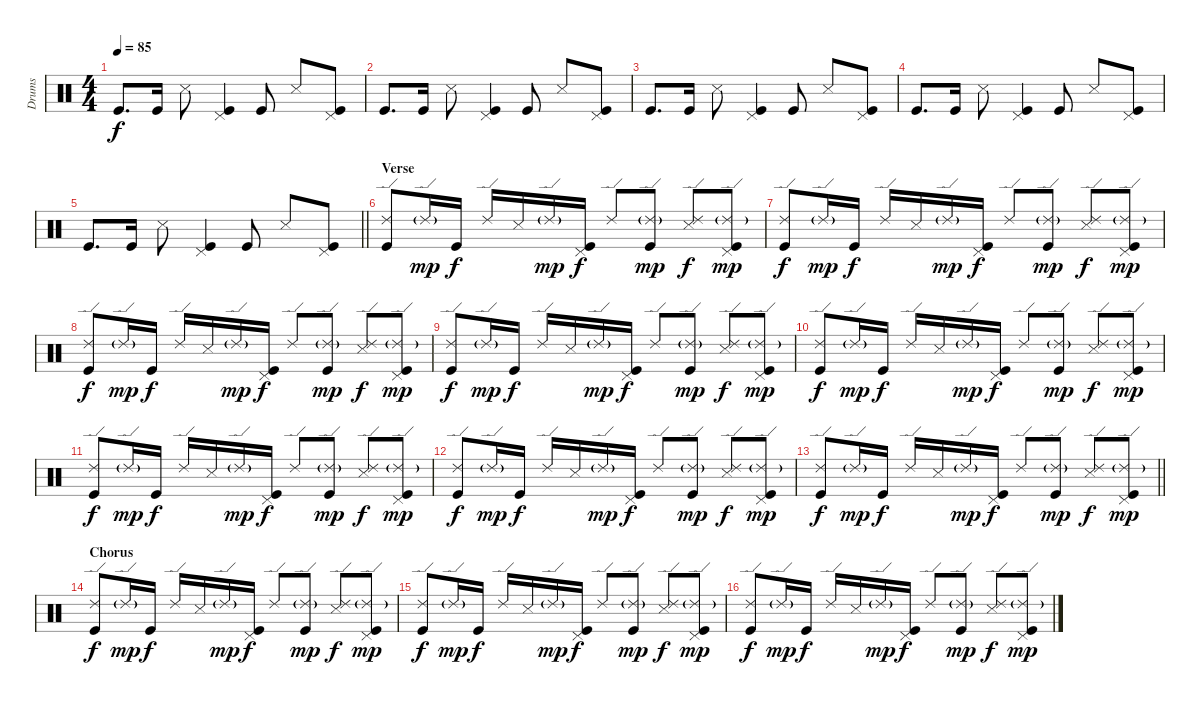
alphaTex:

\track ("Drums" "Drums") {instrument percussion}
\staff {score}
\articulation defaults
\ts (4 4)
\tempo 85
\clef neutral
\ks c "Kick (hit)".8{d dy f} "Kick (hit)".16 "Snare (side stick) 3".8
("Pedal Hi-Hat (hit)" "Kick (hit)").4 "Kick (hit)".8 "Snare (side stick) 3".8 ("Pedal Hi-Hat (hit)" "Kick (hit)").8 |
"Kick (hit)".8{d} "Kick (hit)".16 "Snare (side stick) 3".8 ("Pedal Hi-Hat (hit)" "Kick (hit)").4 "Kick (hit)".8 "Snare (side stick) 3".8 ("Pedal Hi-Hat (hit)" "Kick (hit)").8 |
"Kick (hit)".8{d} "Kick (hit)".16 "Snare (side stick) 3".8 ("Pedal Hi-Hat (hit)" "Kick (hit)").4 "Kick (hit)".8 "Snare (side stick) 3".8 ("Pedal Hi-Hat (hit)" "Kick (hit)").8 |
"Kick (hit)".8{d} "Kick (hit)".16 "Snare (side stick) 3".8 ("Pedal Hi-Hat (hit)" "Kick (hit)").4 "Kick (hit)".8 "Snare (side stick) 3".8 ("Pedal Hi-Hat (hit)" "Kick (hit)").8 |
\barLineRight lightlight "Kick (hit)".8{d} "Kick (hit)".16 "Snare (side stick) 3".8
("Pedal Hi-Hat (hit)" "Kick (hit)").4 "Kick (hit)".8 "Snare (side stick) 3".8 ("Pedal Hi-Hat (hit)" "Kick (hit)").8 |
\section ("" "Verse")
("Ride (edge) 2" "Kick (hit)").8 "Ride (edge) 2"{g}.16{dy mp} "Kick (hit)".16{dy f} "Ride (edge) 2".16 "Snare (side stick) 3".16 "Ride (edge) 2"{g}.16{dy mp} ("Pedal Hi-Hat (hit)" "Kick (hit)").16{dy f} "Ride (edge) 2".8 ("Ride (edge) 2"{g} "Kick (hit)").8{dy mp} ("Ride (edge) 2" "Snare (side stick) 3").8{dy f} ("Ride (edge) 2"{g} "Pedal Hi-Hat (hit)" "Kick (hit)").8{dy mp} |
("Ride (edge) 2" "Kick (hit)").8{dy f} "Ride (edge) 2"{g}.16{dy mp} "Kick (hit)".16{dy f} "Ride (edge) 2".16 "Snare (side stick) 3".16 "Ride (edge) 2"{g}.16{dy mp} ("Pedal Hi-Hat (hit)" "Kick (hit)").16{dy f} "Ride (edge) 2".8 ("Ride (edge) 2"{g} "Kick (hit)").8{dy mp} ("Ride (edge) 2" "Snare (side stick) 3").8{dy f} ("Ride (edge) 2"{g} "Pedal Hi-Hat (hit)" "Kick (hit)").8{dy mp} |
("Ride (edge) 2" "Kick (hit)").8{dy f} "Ride (edge) 2"{g}.16{dy mp} "Kick (hit)".16{dy f} "Ride (edge) 2".16 "Snare (side stick) 3".16 "Ride (edge) 2"{g}.16{dy mp} ("Pedal Hi-Hat (hit)" "Kick (hit)").16{dy f} "Ride (edge) 2".8 ("Ride (edge) 2"{g} "Kick (hit)").8{dy mp} ("Ride (edge) 2" "Snare (side stick) 3").8{dy f} ("Ride (edge) 2"{g} "Pedal Hi-Hat (hit)" "Kick (hit)").8{dy mp} |
("Ride (edge) 2" "Kick (hit)").8{dy f} "Ride (edge) 2"{g}.16{dy mp} "Kick (hit)".16{dy f} "Ride (edge) 2".16 "Snare (side stick) 3".16 "Ride (edge) 2"{g}.16{dy mp} ("Pedal Hi-Hat (hit)" "Kick (hit)").16{dy f} "Ride (edge) 2".8 ("Ride (edge) 2"{g} "Kick (hit)").8{dy mp} ("Ride (edge) 2" "Snare (side stick) 3").8{dy f} ("Ride (edge) 2"{g} "Pedal Hi-Hat (hit)" "Kick (hit)").8{dy mp} |
("Ride (edge) 2" "Kick (hit)").8{dy f} "Ride (edge) 2"{g}.16{dy mp} "Kick (hit)".16{dy f} "Ride (edge) 2".16 "Snare (side stick) 3".16 "Ride (edge) 2"{g}.16{dy mp} ("Pedal Hi-Hat (hit)" "Kick (hit)").16{dy f} "Ride (edge) 2".8 ("Ride (edge) 2"{g} "Kick (hit)").8{dy mp} ("Ride (edge) 2" "Snare (side stick) 3").8{dy f} ("Ride (edge) 2"{g} "Pedal Hi-Hat (hit)" "Kick (hit)").8{dy mp} |
("Ride (edge) 2" "Kick (hit)").8{dy f} "Ride (edge) 2"{g}.16{dy mp} "Kick (hit)".16{dy f} "Ride (edge) 2".16 "Snare (side stick) 3".16 "Ride (edge) 2"{g}.16{dy mp} ("Pedal Hi-Hat (hit)" "Kick (hit)").16{dy f} "Ride (edge) 2".8 ("Ride (edge) 2"{g} "Kick (hit)").8{dy mp} ("Ride (edge) 2" "Snare (side stick) 3").8{dy f} ("Ride (edge) 2"{g} "Pedal Hi-Hat (hit)" "Kick (hit)").8{dy mp} |
("Ride (edge) 2" "Kick (hit)").8{dy f} "Ride (edge) 2"{g}.16{dy mp} "Kick (hit)".16{dy f} "Ride (edge) 2".16 "Snare (side stick) 3".16 "Ride (edge) 2"{g}.16{dy mp} ("Pedal Hi-Hat (hit)" "Kick (hit)").16{dy f} "Ride (edge) 2".8 ("Ride (edge) 2"{g} "Kick (hit)").8{dy mp} ("Ride (edge) 2" "Snare (side stick) 3").8{dy f} ("Ride (edge) 2"{g} "Pedal Hi-Hat (hit)" "Kick (hit)").8{dy mp} |
\barLineRight lightlight
("Ride (edge) 2" "Kick (hit)").8{dy f} "Ride (edge) 2"{g}.16{dy mp} "Kick (hit)".16{dy f} "Ride (edge) 2".16 "Snare (side stick) 3".16 "Ride (edge) 2"{g}.16{dy mp} ("Pedal Hi-Hat (hit)" "Kick (hit)").16{dy f} "Ride (edge) 2".8 ("Ride (edge) 2"{g} "Kick (hit)").8{dy mp} ("Ride (edge) 2" "Snare (side stick) 3").8{dy f} ("Ride (edge) 2"{g} "Pedal Hi-Hat (hit)" "Kick (hit)").8{dy mp} |
\section ("" "Chorus")
("Ride (edge) 2" "Kick (hit)").8{dy f} "Ride (edge) 2"{g}.16{dy mp} "Kick (hit)".16{dy f} "Ride (edge) 2".16 "Snare (side stick) 3".16 "Ride (edge) 2"{g}.16{dy mp} ("Pedal Hi-Hat (hit)" "Kick (hit)").16{dy f} "Ride (edge) 2".8 ("Ride (edge) 2"{g} "Kick (hit)").8{dy mp} ("Ride (edge) 2" "Snare (side stick) 3").8{dy f} ("Ride (edge) 2"{g} "Pedal Hi-Hat (hit)" "Kick (hit)").8{dy mp} |
("Ride (edge) 2" "Kick (hit)").8{dy f} "Ride (edge) 2"{g}.16{dy mp} "Kick (hit)".16{dy f} "Ride (edge) 2".16 "Snare (side stick) 3".16 "Ride (edge) 2"{g}.16{dy mp} ("Pedal Hi-Hat (hit)" "Kick (hit)").16{dy f} "Ride (edge) 2".8 ("Ride (edge) 2"{g} "Kick (hit)").8{dy mp} ("Ride (edge) 2" "Snare (side stick) 3").8{dy f} ("Ride (edge) 2"{g} "Pedal Hi-Hat (hit)" "Kick (hit)").8{dy mp} |
("Ride (edge) 2" "Kick (hit)").8{dy f} "Ride (edge) 2"{g}.16{dy mp} "Kick (hit)".16{dy f} "Ride (edge) 2".16 "Snare (side stick) 3".16 "Ride (edge) 2"{g}.16{dy mp} ("Pedal Hi-Hat (hit)" "Kick (hit)").16{dy f} "Ride (edge) 2".8 ("Ride (edge) 2"{g} "Kick (hit)").8{dy mp} ("Ride (edge) 2" "Snare (side stick) 3").8{dy f} ("Ride (edge) 2"{g} "Pedal Hi-Hat (hit)" "Kick (hit)").8{dy mp}
